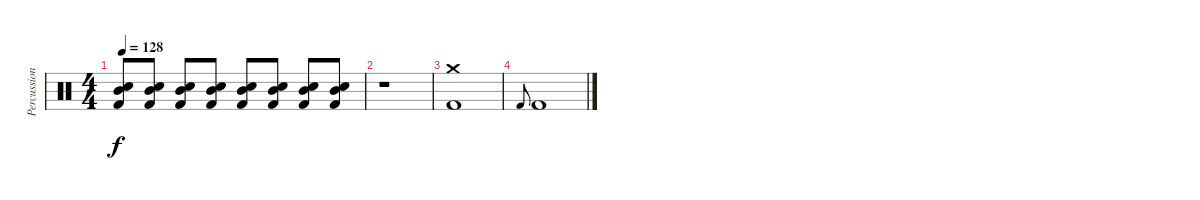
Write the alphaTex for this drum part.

\track ("Percussion" "Percussion") {instrument percussion}
\staff {score}
\articulation defaults
\ts (4 4)
\tempo 128
\clef neutral
\ks c
("Mid Tom (hit)" "Snare (hit) 2" "Kick (hit) 2").8{dy f} ("Mid Tom (hit)" "Snare (hit) 2" "Kick (hit) 2").8 ("Mid Tom (hit)" "Snare (hit) 2" "Kick (hit) 2").8 ("Mid Tom (hit)" "Snare (hit) 2" "Kick (hit) 2").8 ("Mid Tom (hit)" "Snare (hit) 2" "Kick (hit) 2").8 ("Mid Tom (hit)" "Snare (hit) 2" "Kick (hit) 2").8 ("Mid Tom (hit)" "Snare (hit) 2" "Kick (hit) 2").8 ("Mid Tom (hit)" "Snare (hit) 2" "Kick (hit) 2").8 |
r.1 |
("Crash medium (hit)" "Kick (hit) 2").1 |
"Kick (hit) 2".8{gr onbeat} "Kick (hit) 2".1
